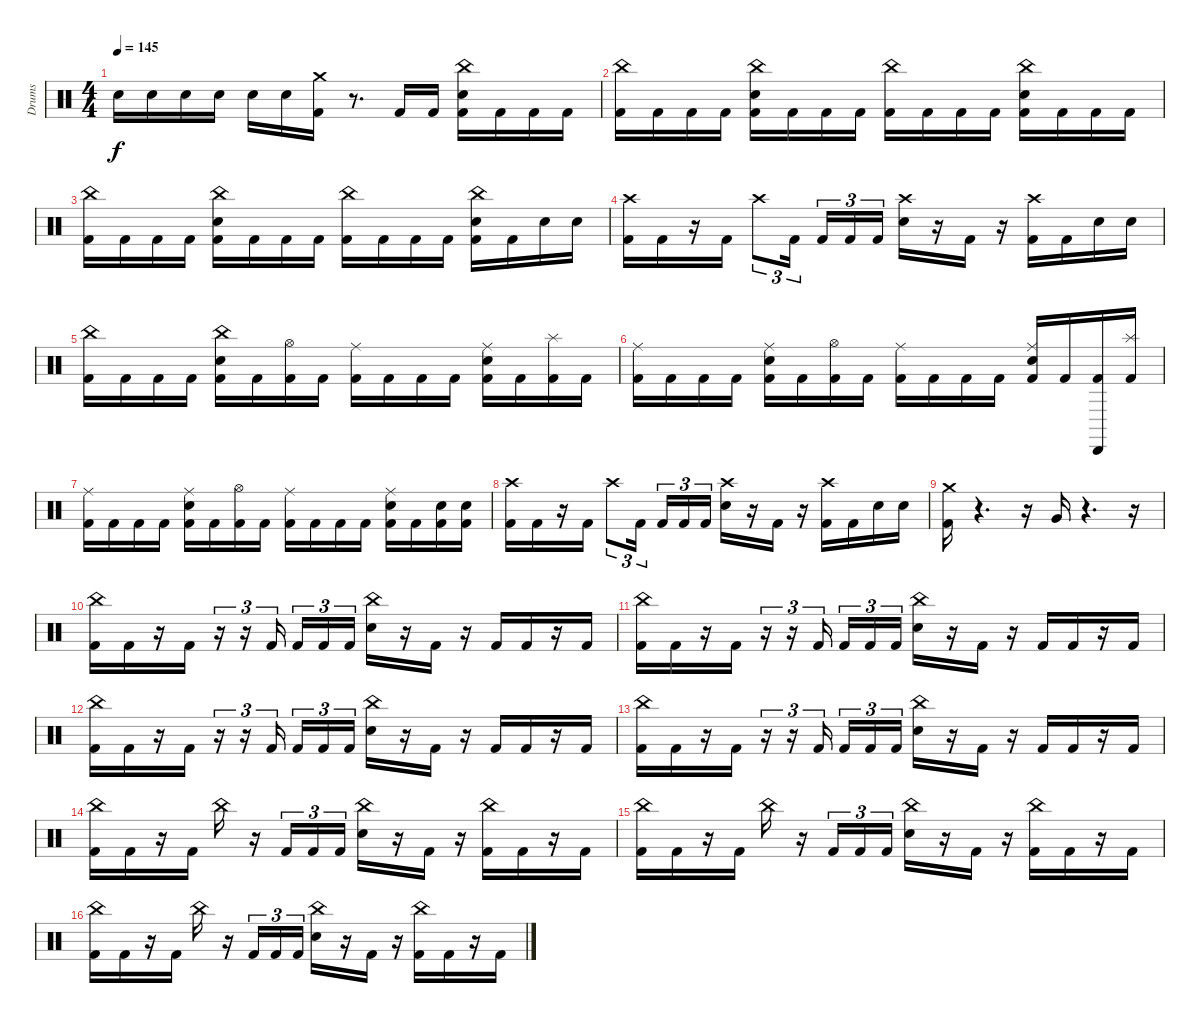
\track ("Drums" "Drums") {instrument percussion}
\staff {score}
\articulation defaults
\ts (4 4)
\tempo 145
\clef neutral
\ks c "Snare (hit) 2".16{dy f} "Snare (hit) 2".16 "Snare (hit) 2".16 "Snare (hit) 2".16 "Snare (hit) 2".16 "Snare (hit) 2".16
("Kick (hit) 2" "Crash medium (hit)").16 r.8{d} "Kick (hit) 2".16 "Kick (hit) 2".16 ("Kick (hit) 2" "Snare (hit) 2" "China (hit)").16 "Kick (hit) 2".16 "Kick (hit) 2".16 "Kick (hit) 2".16 |
("Kick (hit) 2" "China (hit)").16 "Kick (hit) 2".16 "Kick (hit) 2".16 "Kick (hit) 2".16 ("Kick (hit) 2" "Snare (hit) 2" "China (hit)").16 "Kick (hit) 2".16 "Kick (hit) 2".16 "Kick (hit) 2".16 ("Kick (hit) 2" "China (hit)").16 "Kick (hit) 2".16 "Kick (hit) 2".16 "Kick (hit) 2".16 ("Kick (hit) 2" "Snare (hit) 2" "China (hit)").16 "Kick (hit) 2".16 "Kick (hit) 2".16 "Kick (hit) 2".16 |
("Kick (hit) 2" "China (hit)").16 "Kick (hit) 2".16 "Kick (hit) 2".16 "Kick (hit) 2".16 ("Kick (hit) 2" "Snare (hit) 2" "China (hit)").16 "Kick (hit) 2".16 "Kick (hit) 2".16 "Kick (hit) 2".16 ("Kick (hit) 2" "China (hit)").16 "Kick (hit) 2".16 "Kick (hit) 2".16 "Kick (hit) 2".16 ("Kick (hit) 2" "Snare (hit) 2" "China (hit)").16 "Kick (hit) 2".16 "Snare (hit) 2".16 "Snare (hit) 2".16 |
("Kick (hit) 2" "Crash high (hit)").16 "Kick (hit) 2".16 r.16 "Kick (hit) 2".16 "Crash high (hit)".8{tu (3 2)} "Kick (hit) 2".16{tu (3 2) beam splitsecondary} "Kick (hit) 2".16{tu (3 2)} "Kick (hit) 2".16{tu (3 2)} "Kick (hit) 2".16{tu (3 2)} ("Snare (hit) 2" "Crash high (hit)").16 r.16 "Kick (hit) 2".16 r.16 ("Kick (hit) 2" "Crash high (hit)").16 "Kick (hit) 2".16 "Snare (hit) 2".16 "Snare (hit) 2".16 |
("Kick (hit) 2" "China (hit)").16 "Kick (hit) 2".16 "Kick (hit) 2".16 "Kick (hit) 2".16 ("Kick (hit) 2" "Snare (hit) 2" "China (hit)").16 "Kick (hit) 2".16 ("Kick (hit) 2" "Hi-Hat (open)").16 "Kick (hit) 2".16 ("Kick (hit) 2" "Ride (middle)").16 "Kick (hit) 2".16 "Kick (hit) 2".16 "Kick (hit) 2".16 ("Kick (hit) 2" "Snare (hit) 2" "Ride (middle)").16 "Kick (hit) 2".16 ("Kick (hit) 2" "Splash (hit)").16 "Kick (hit) 2".16 |
("Kick (hit) 2" "Ride (middle)").16 "Kick (hit) 2".16 "Kick (hit) 2".16 "Kick (hit) 2".16 ("Kick (hit) 2" "Snare (hit) 2" "Ride (middle)").16 "Kick (hit) 2".16 ("Kick (hit) 2" "Hi-Hat (open)").16 "Kick (hit) 2".16 ("Kick (hit) 2" "Ride (middle)").16 "Kick (hit) 2".16 "Kick (hit) 2".16 "Kick (hit) 2".16 ("Kick (hit) 2" "Snare (hit) 2" "Ride (middle)").16 "Kick (hit) 2".16 ("Kick (hit) 2" "Cabasa (hit)").16 ("Kick (hit) 2" "Splash (hit)").16 |
("Kick (hit) 2" "Ride (middle)").16 "Kick (hit) 2".16 "Kick (hit) 2".16 "Kick (hit) 2".16 ("Kick (hit) 2" "Snare (hit) 2" "Ride (middle)").16 "Kick (hit) 2".16 ("Kick (hit) 2" "Hi-Hat (open)").16 "Kick (hit) 2".16 ("Kick (hit) 2" "Ride (middle)").16 "Kick (hit) 2".16 "Kick (hit) 2".16 "Kick (hit) 2".16 ("Kick (hit) 2" "Snare (hit) 2" "Ride (middle)").16 "Kick (hit) 2".16 ("Kick (hit) 2" "Snare (hit) 2").16 ("Kick (hit) 2" "Snare (hit) 2").16 |
("Kick (hit) 2" "Crash high (hit)").16 "Kick (hit) 2".16 r.16 "Kick (hit) 2".16 "Crash high (hit)".8{tu (3 2)} "Kick (hit) 2".16{tu (3 2) beam splitsecondary} "Kick (hit) 2".16{tu (3 2)} "Kick (hit) 2".16{tu (3 2)} "Kick (hit) 2".16{tu (3 2)} ("Snare (hit) 2" "Crash high (hit)").16 r.16 "Kick (hit) 2".16 r.16 ("Kick (hit) 2" "Crash high (hit)").16 "Kick (hit) 2".16 "Snare (hit) 2".16 "Snare (hit) 2".16 |
("Kick (hit) 2" "Crash medium (hit)").16 r.4{d} r.16 "Very Low Tom (hit)".16 r.4{d} r.16 |
("Kick (hit) 2" "China (hit)").16 "Kick (hit) 2".16 r.16 "Kick (hit) 2".16 r.16{tu (3 2)} r.16{tu (3 2)} "Kick (hit) 2".16{tu (3 2) beam splitsecondary} "Kick (hit) 2".16{tu (3 2)} "Kick (hit) 2".16{tu (3 2)} "Kick (hit) 2".16{tu (3 2)} ("Snare (hit) 2" "China (hit)").16 r.16 "Kick (hit) 2".16 r.16 "Kick (hit) 2".16 "Kick (hit) 2".16 r.16 "Kick (hit) 2".16 |
("Kick (hit) 2" "China (hit)").16 "Kick (hit) 2".16 r.16 "Kick (hit) 2".16 r.16{tu (3 2)} r.16{tu (3 2)} "Kick (hit) 2".16{tu (3 2) beam splitsecondary} "Kick (hit) 2".16{tu (3 2)} "Kick (hit) 2".16{tu (3 2)} "Kick (hit) 2".16{tu (3 2)} ("Snare (hit) 2" "China (hit)").16 r.16 "Kick (hit) 2".16 r.16 "Kick (hit) 2".16 "Kick (hit) 2".16 r.16 "Kick (hit) 2".16 |
("Kick (hit) 2" "China (hit)").16 "Kick (hit) 2".16 r.16 "Kick (hit) 2".16 r.16{tu (3 2)} r.16{tu (3 2)} "Kick (hit) 2".16{tu (3 2) beam splitsecondary} "Kick (hit) 2".16{tu (3 2)} "Kick (hit) 2".16{tu (3 2)} "Kick (hit) 2".16{tu (3 2)} ("Snare (hit) 2" "China (hit)").16 r.16 "Kick (hit) 2".16 r.16 "Kick (hit) 2".16 "Kick (hit) 2".16 r.16 "Kick (hit) 2".16 |
("Kick (hit) 2" "China (hit)").16 "Kick (hit) 2".16 r.16 "Kick (hit) 2".16 r.16{tu (3 2)} r.16{tu (3 2)} "Kick (hit) 2".16{tu (3 2) beam splitsecondary} "Kick (hit) 2".16{tu (3 2)} "Kick (hit) 2".16{tu (3 2)} "Kick (hit) 2".16{tu (3 2)} ("Snare (hit) 2" "China (hit)").16 r.16 "Kick (hit) 2".16 r.16 "Kick (hit) 2".16 "Kick (hit) 2".16 r.16 "Kick (hit) 2".16 |
("Kick (hit) 2" "China (hit)").16 "Kick (hit) 2".16 r.16 "Kick (hit) 2".16 "China (hit)".16 r.16 "Kick (hit) 2".16{tu (3 2)} "Kick (hit) 2".16{tu (3 2)} "Kick (hit) 2".16{tu (3 2)} ("Snare (hit) 2" "China (hit)").16 r.16 "Kick (hit) 2".16 r.16 ("Kick (hit) 2" "China (hit)").16 "Kick (hit) 2".16 r.16 "Kick (hit) 2".16 |
("Kick (hit) 2" "China (hit)").16 "Kick (hit) 2".16 r.16 "Kick (hit) 2".16 "China (hit)".16 r.16 "Kick (hit) 2".16{tu (3 2)} "Kick (hit) 2".16{tu (3 2)} "Kick (hit) 2".16{tu (3 2)} ("Snare (hit) 2" "China (hit)").16 r.16 "Kick (hit) 2".16 r.16 ("Kick (hit) 2" "China (hit)").16 "Kick (hit) 2".16 r.16 "Kick (hit) 2".16 |
("Kick (hit) 2" "China (hit)").16 "Kick (hit) 2".16 r.16 "Kick (hit) 2".16 "China (hit)".16 r.16 "Kick (hit) 2".16{tu (3 2)} "Kick (hit) 2".16{tu (3 2)} "Kick (hit) 2".16{tu (3 2)} ("Snare (hit) 2" "China (hit)").16 r.16 "Kick (hit) 2".16 r.16 ("Kick (hit) 2" "China (hit)").16 "Kick (hit) 2".16 r.16 "Kick (hit) 2".16
